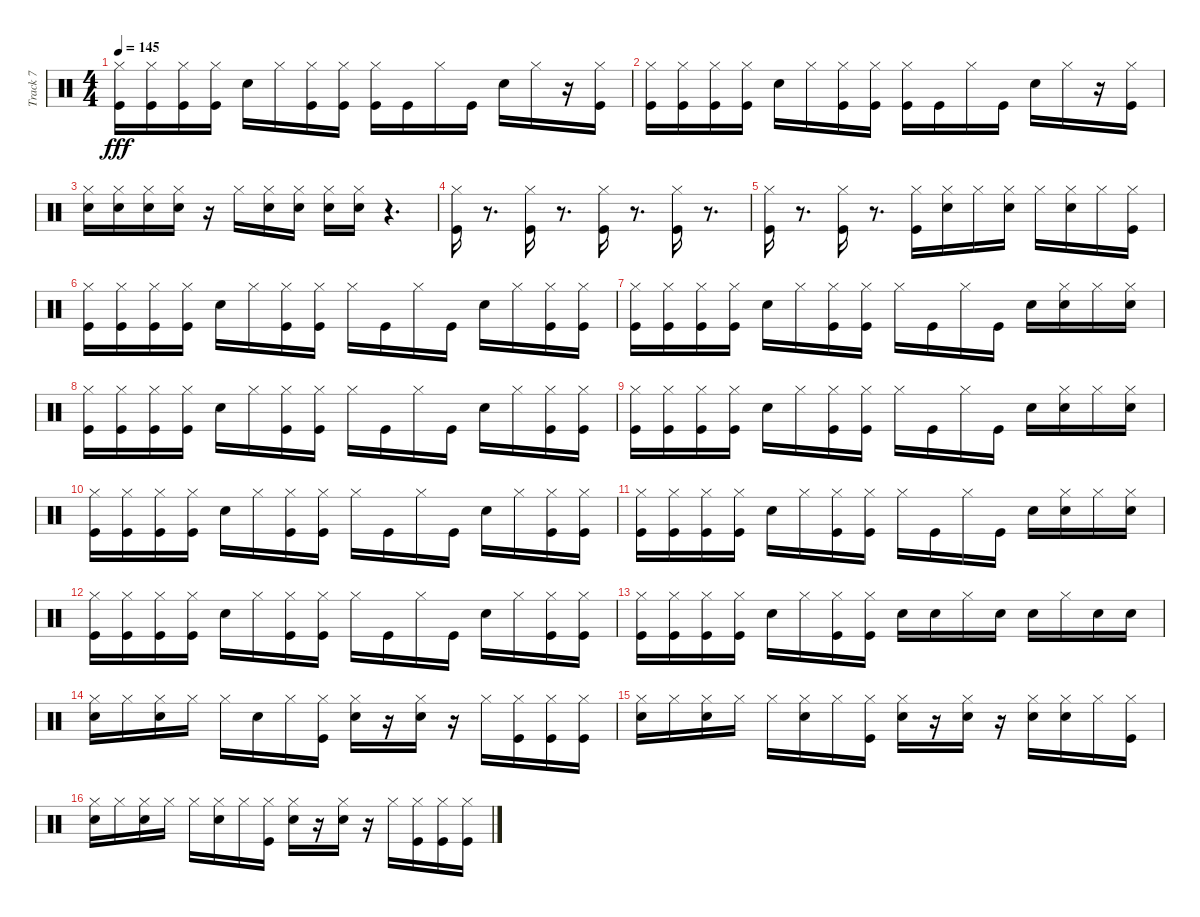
\track ("Track 7" "Track 7") {instrument percussion}
\staff {score}
\articulation defaults
\ts (4 4)
\tempo 145
\clef neutral
\ks c
("Kick (hit)" "Hi-Hat (closed)").16{dy fff} ("Kick (hit)" "Hi-Hat (closed)").16 ("Kick (hit)" "Hi-Hat (closed)").16 ("Kick (hit)" "Hi-Hat (closed)").16 "Snare (hit) 2".16 "Hi-Hat (closed)".16 ("Kick (hit)" "Hi-Hat (closed)").16 ("Kick (hit)" "Hi-Hat (closed)").16 ("Kick (hit)" "Hi-Hat (closed)").16 "Kick (hit)".16 "Hi-Hat (closed)".16 "Kick (hit)".16 "Snare (hit) 2".16 "Hi-Hat (closed)".16 r.16 ("Kick (hit)" "Hi-Hat (closed)").16 |
("Kick (hit)" "Hi-Hat (closed)").16 ("Kick (hit)" "Hi-Hat (closed)").16 ("Kick (hit)" "Hi-Hat (closed)").16 ("Kick (hit)" "Hi-Hat (closed)").16 "Snare (hit) 2".16 "Hi-Hat (closed)".16 ("Kick (hit)" "Hi-Hat (closed)").16 ("Kick (hit)" "Hi-Hat (closed)").16 ("Kick (hit)" "Hi-Hat (closed)").16 "Kick (hit)".16 "Hi-Hat (closed)".16 "Kick (hit)".16 "Snare (hit) 2".16 "Hi-Hat (closed)".16 r.16 ("Kick (hit)" "Hi-Hat (closed)").16 |
("Snare (hit) 2" "Hi-Hat (closed)").16 ("Snare (hit) 2" "Hi-Hat (closed)").16 ("Snare (hit) 2" "Hi-Hat (closed)").16 ("Snare (hit) 2" "Hi-Hat (closed)").16 r.16 "Hi-Hat (closed)".16 ("Snare (hit) 2" "Hi-Hat (closed)").16 ("Snare (hit) 2" "Hi-Hat (closed)").16 ("Snare (hit) 2" "Hi-Hat (closed)").16 ("Snare (hit) 2" "Hi-Hat (closed)").16 r.4{d} |
("Kick (hit)" "Hi-Hat (closed)").16 r.8{d} ("Kick (hit)" "Hi-Hat (closed)").16 r.8{d} ("Kick (hit)" "Hi-Hat (closed)").16 r.8{d} ("Kick (hit)" "Hi-Hat (closed)").16 r.8{d} |
("Kick (hit)" "Hi-Hat (closed)").16 r.8{d} ("Kick (hit)" "Hi-Hat (closed)").16 r.8{d} ("Kick (hit)" "Hi-Hat (closed)").16 ("Snare (hit) 2" "Hi-Hat (closed)").16 "Hi-Hat (closed)".16 ("Snare (hit) 2" "Hi-Hat (closed)").16 "Hi-Hat (closed)".16 ("Snare (hit) 2" "Hi-Hat (closed)").16 "Hi-Hat (closed)".16 ("Kick (hit)" "Hi-Hat (closed)").16 |
("Kick (hit)" "Hi-Hat (closed)").16 ("Kick (hit)" "Hi-Hat (closed)").16 ("Kick (hit)" "Hi-Hat (closed)").16 ("Kick (hit)" "Hi-Hat (closed)").16 "Snare (hit) 2".16 "Hi-Hat (closed)".16 ("Kick (hit)" "Hi-Hat (closed)").16 ("Kick (hit)" "Hi-Hat (closed)").16 "Hi-Hat (closed)".16 "Kick (hit)".16 "Hi-Hat (closed)".16 "Kick (hit)".16 "Snare (hit) 2".16 "Hi-Hat (closed)".16 ("Kick (hit)" "Hi-Hat (closed)").16 ("Kick (hit)" "Hi-Hat (closed)").16 |
("Kick (hit)" "Hi-Hat (closed)").16 ("Kick (hit)" "Hi-Hat (closed)").16 ("Kick (hit)" "Hi-Hat (closed)").16 ("Kick (hit)" "Hi-Hat (closed)").16 "Snare (hit) 2".16 "Hi-Hat (closed)".16 ("Kick (hit)" "Hi-Hat (closed)").16 ("Kick (hit)" "Hi-Hat (closed)").16 "Hi-Hat (closed)".16 "Kick (hit)".16 "Hi-Hat (closed)".16 "Kick (hit)".16 "Snare (hit) 2".16 ("Snare (hit) 2" "Hi-Hat (closed)").16 "Hi-Hat (closed)".16 ("Snare (hit) 2" "Hi-Hat (closed)").16 |
("Kick (hit)" "Hi-Hat (closed)").16 ("Kick (hit)" "Hi-Hat (closed)").16 ("Kick (hit)" "Hi-Hat (closed)").16 ("Kick (hit)" "Hi-Hat (closed)").16 "Snare (hit) 2".16 "Hi-Hat (closed)".16 ("Kick (hit)" "Hi-Hat (closed)").16 ("Kick (hit)" "Hi-Hat (closed)").16 "Hi-Hat (closed)".16 "Kick (hit)".16 "Hi-Hat (closed)".16 "Kick (hit)".16 "Snare (hit) 2".16 "Hi-Hat (closed)".16 ("Kick (hit)" "Hi-Hat (closed)").16 ("Kick (hit)" "Hi-Hat (closed)").16 |
("Kick (hit)" "Hi-Hat (closed)").16 ("Kick (hit)" "Hi-Hat (closed)").16 ("Kick (hit)" "Hi-Hat (closed)").16 ("Kick (hit)" "Hi-Hat (closed)").16 "Snare (hit) 2".16 "Hi-Hat (closed)".16 ("Kick (hit)" "Hi-Hat (closed)").16 ("Kick (hit)" "Hi-Hat (closed)").16 "Hi-Hat (closed)".16 "Kick (hit)".16 "Hi-Hat (closed)".16 "Kick (hit)".16 "Snare (hit) 2".16 ("Snare (hit) 2" "Hi-Hat (closed)").16 "Hi-Hat (closed)".16 ("Snare (hit) 2" "Hi-Hat (closed)").16 |
("Kick (hit)" "Hi-Hat (closed)").16 ("Kick (hit)" "Hi-Hat (closed)").16 ("Kick (hit)" "Hi-Hat (closed)").16 ("Kick (hit)" "Hi-Hat (closed)").16 "Snare (hit) 2".16 "Hi-Hat (closed)".16 ("Kick (hit)" "Hi-Hat (closed)").16 ("Kick (hit)" "Hi-Hat (closed)").16 "Hi-Hat (closed)".16 "Kick (hit)".16 "Hi-Hat (closed)".16 "Kick (hit)".16 "Snare (hit) 2".16 "Hi-Hat (closed)".16 ("Kick (hit)" "Hi-Hat (closed)").16 ("Kick (hit)" "Hi-Hat (closed)").16 |
("Kick (hit)" "Hi-Hat (closed)").16 ("Kick (hit)" "Hi-Hat (closed)").16 ("Kick (hit)" "Hi-Hat (closed)").16 ("Kick (hit)" "Hi-Hat (closed)").16 "Snare (hit) 2".16 "Hi-Hat (closed)".16 ("Kick (hit)" "Hi-Hat (closed)").16 ("Kick (hit)" "Hi-Hat (closed)").16 "Hi-Hat (closed)".16 "Kick (hit)".16 "Hi-Hat (closed)".16 "Kick (hit)".16 "Snare (hit) 2".16 ("Snare (hit) 2" "Hi-Hat (closed)").16 "Hi-Hat (closed)".16 ("Snare (hit) 2" "Hi-Hat (closed)").16 |
("Kick (hit)" "Hi-Hat (closed)").16 ("Kick (hit)" "Hi-Hat (closed)").16 ("Kick (hit)" "Hi-Hat (closed)").16 ("Kick (hit)" "Hi-Hat (closed)").16 "Snare (hit) 2".16 "Hi-Hat (closed)".16 ("Kick (hit)" "Hi-Hat (closed)").16 ("Kick (hit)" "Hi-Hat (closed)").16 "Hi-Hat (closed)".16 "Kick (hit)".16 "Hi-Hat (closed)".16 "Kick (hit)".16 "Snare (hit) 2".16 "Hi-Hat (closed)".16 ("Kick (hit)" "Hi-Hat (closed)").16 ("Kick (hit)" "Hi-Hat (closed)").16 |
("Kick (hit)" "Hi-Hat (closed)").16 ("Kick (hit)" "Hi-Hat (closed)").16 ("Kick (hit)" "Hi-Hat (closed)").16 ("Kick (hit)" "Hi-Hat (closed)").16 "Snare (hit) 2".16 "Hi-Hat (closed)".16 ("Kick (hit)" "Hi-Hat (closed)").16 ("Kick (hit)" "Hi-Hat (closed)").16 "Snare (hit) 2".16 "Snare (hit) 2".16 "Hi-Hat (closed)".16 "Snare (hit) 2".16 "Snare (hit) 2".16 "Hi-Hat (closed)".16 "Snare (hit) 2".16 "Snare (hit) 2".16 |
("Snare (hit) 2" "Hi-Hat (closed)").16 "Hi-Hat (closed)".16 ("Snare (hit) 2" "Hi-Hat (closed)").16 "Hi-Hat (closed)".16 "Hi-Hat (closed)".16 "Snare (hit) 2".16 "Hi-Hat (closed)".16 ("Kick (hit)" "Hi-Hat (closed)").16 ("Snare (hit) 2" "Hi-Hat (closed)").16 r.16 ("Snare (hit) 2" "Hi-Hat (closed)").16 r.16 "Hi-Hat (closed)".16 ("Kick (hit)" "Hi-Hat (closed)").16 ("Kick (hit)" "Hi-Hat (closed)").16 ("Kick (hit)" "Hi-Hat (closed)").16 |
("Snare (hit) 2" "Hi-Hat (closed)").16 "Hi-Hat (closed)".16 ("Snare (hit) 2" "Hi-Hat (closed)").16 "Hi-Hat (closed)".16 "Hi-Hat (closed)".16 ("Snare (hit) 2" "Hi-Hat (closed)").16 "Hi-Hat (closed)".16 ("Kick (hit)" "Hi-Hat (closed)").16 ("Snare (hit) 2" "Hi-Hat (closed)").16 r.16 ("Snare (hit) 2" "Hi-Hat (closed)").16 r.16 ("Snare (hit) 2" "Hi-Hat (closed)").16 ("Snare (hit) 2" "Hi-Hat (closed)").16 "Hi-Hat (closed)".16 ("Kick (hit)" "Hi-Hat (closed)").16 |
("Snare (hit) 2" "Hi-Hat (closed)").16 "Hi-Hat (closed)".16 ("Snare (hit) 2" "Hi-Hat (closed)").16 "Hi-Hat (closed)".16 "Hi-Hat (closed)".16 ("Snare (hit) 2" "Hi-Hat (closed)").16 "Hi-Hat (closed)".16 ("Kick (hit)" "Hi-Hat (closed)").16 ("Snare (hit) 2" "Hi-Hat (closed)").16 r.16 ("Snare (hit) 2" "Hi-Hat (closed)").16 r.16 "Hi-Hat (closed)".16 ("Kick (hit)" "Hi-Hat (closed)").16 ("Kick (hit)" "Hi-Hat (closed)").16 ("Kick (hit)" "Hi-Hat (closed)").16
